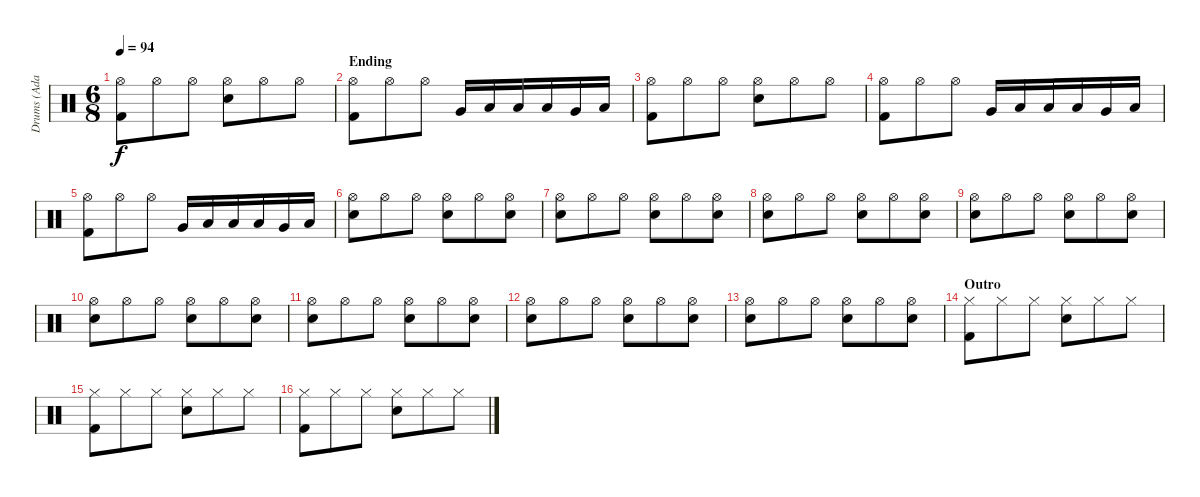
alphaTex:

\track ("Drums (Adam)" "Drums (Ada") {instrument percussion}
\staff {score}
\articulation defaults
\ts (6 8)
\tempo 94
\clef neutral
\ks c
("Hi-Hat (open)" "Kick (hit) 2").8{dy f} "Hi-Hat (open)".8 "Hi-Hat (open)".8 ("Hi-Hat (open)" "Snare (hit) 2").8 "Hi-Hat (open)".8 "Hi-Hat (open)".8 |
\section ("" "Ending")
("Hi-Hat (open)" "Kick (hit) 2").8 "Hi-Hat (open)".8 "Hi-Hat (open)".8 "Very Low Tom (hit)".16 "Low Floor Tom (hit)".16 "Low Tom (hit)".16 "Low Floor Tom (hit)".16 "Very Low Tom (hit)".16 "Low Floor Tom (hit)".16 |
("Hi-Hat (open)" "Kick (hit) 2").8 "Hi-Hat (open)".8 "Hi-Hat (open)".8 ("Hi-Hat (open)" "Snare (hit) 2").8 "Hi-Hat (open)".8 "Hi-Hat (open)".8 |
("Hi-Hat (open)" "Kick (hit) 2").8 "Hi-Hat (open)".8 "Hi-Hat (open)".8 "Very Low Tom (hit)".16 "Low Floor Tom (hit)".16 "Low Tom (hit)".16 "Low Floor Tom (hit)".16 "Very Low Tom (hit)".16 "Low Floor Tom (hit)".16 |
("Hi-Hat (open)" "Kick (hit) 2").8 "Hi-Hat (open)".8 "Hi-Hat (open)".8 "Very Low Tom (hit)".16 "Low Floor Tom (hit)".16 "Low Tom (hit)".16 "Low Floor Tom (hit)".16 "Very Low Tom (hit)".16 "Low Floor Tom (hit)".16 |
("Hi-Hat (open)" "Snare (hit) 2").8 "Hi-Hat (open)".8 "Hi-Hat (open)".8 ("Hi-Hat (open)" "Snare (hit) 2").8 "Hi-Hat (open)".8 ("Hi-Hat (open)" "Snare (hit) 2").8 |
("Hi-Hat (open)" "Snare (hit) 2").8 "Hi-Hat (open)".8 "Hi-Hat (open)".8 ("Hi-Hat (open)" "Snare (hit) 2").8 "Hi-Hat (open)".8 ("Hi-Hat (open)" "Snare (hit) 2").8 |
("Hi-Hat (open)" "Snare (hit) 2").8 "Hi-Hat (open)".8 "Hi-Hat (open)".8 ("Hi-Hat (open)" "Snare (hit) 2").8 "Hi-Hat (open)".8 ("Hi-Hat (open)" "Snare (hit) 2").8 |
("Hi-Hat (open)" "Snare (hit) 2").8 "Hi-Hat (open)".8 "Hi-Hat (open)".8 ("Hi-Hat (open)" "Snare (hit) 2").8 "Hi-Hat (open)".8 ("Hi-Hat (open)" "Snare (hit) 2").8 |
("Hi-Hat (open)" "Snare (hit) 2").8 "Hi-Hat (open)".8 "Hi-Hat (open)".8 ("Hi-Hat (open)" "Snare (hit) 2").8 "Hi-Hat (open)".8 ("Hi-Hat (open)" "Snare (hit) 2").8 |
("Hi-Hat (open)" "Snare (hit) 2").8 "Hi-Hat (open)".8 "Hi-Hat (open)".8 ("Hi-Hat (open)" "Snare (hit) 2").8 "Hi-Hat (open)".8 ("Hi-Hat (open)" "Snare (hit) 2").8 |
("Hi-Hat (open)" "Snare (hit) 2").8 "Hi-Hat (open)".8 "Hi-Hat (open)".8 ("Hi-Hat (open)" "Snare (hit) 2").8 "Hi-Hat (open)".8 ("Hi-Hat (open)" "Snare (hit) 2").8 |
("Hi-Hat (open)" "Snare (hit) 2").8 "Hi-Hat (open)".8 "Hi-Hat (open)".8 ("Hi-Hat (open)" "Snare (hit) 2").8 "Hi-Hat (open)".8 ("Hi-Hat (open)" "Snare (hit) 2").8 |
\section ("" "Outro")
("Hi-Hat (closed)" "Kick (hit) 2").8 "Hi-Hat (closed)".8 "Hi-Hat (closed)".8 ("Hi-Hat (closed)" "Snare (hit) 2").8 "Hi-Hat (closed)".8 "Hi-Hat (closed)".8 |
("Hi-Hat (closed)" "Kick (hit) 2").8 "Hi-Hat (closed)".8 "Hi-Hat (closed)".8 ("Hi-Hat (closed)" "Snare (hit) 2").8 "Hi-Hat (closed)".8 "Hi-Hat (closed)".8 |
("Hi-Hat (closed)" "Kick (hit) 2").8 "Hi-Hat (closed)".8 "Hi-Hat (closed)".8 ("Hi-Hat (closed)" "Snare (hit) 2").8 "Hi-Hat (closed)".8 "Hi-Hat (closed)".8
